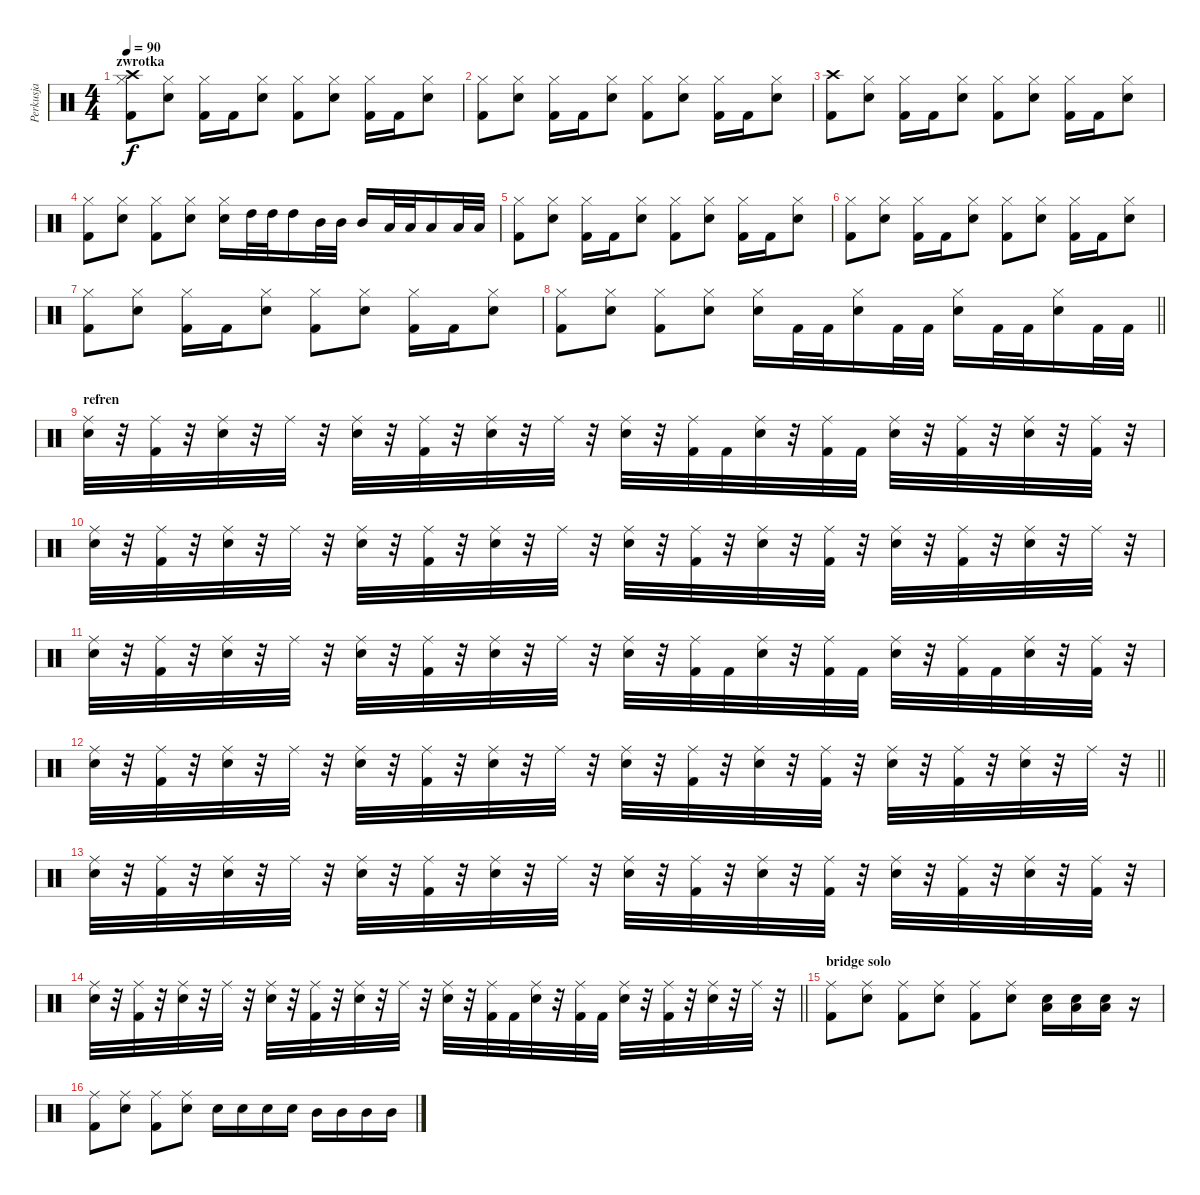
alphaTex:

\track ("Perkusja" "Perkusja") {instrument percussion}
\staff {score}
\articulation defaults
\ts (4 4)
\section ("" "zwrotka")
\tempo 90
\clef neutral
\ks c
("Kick (hit) 2" "Hi-Hat (closed)" "Crash high (hit)").8{dy f} ("Snare (hit) 2" "Hi-Hat (closed)").8 ("Kick (hit) 2" "Hi-Hat (closed)").16 "Kick (hit) 2".16 ("Snare (hit) 2" "Hi-Hat (closed)").8 ("Kick (hit) 2" "Hi-Hat (closed)").8 ("Snare (hit) 2" "Hi-Hat (closed)").8 ("Kick (hit) 2" "Hi-Hat (closed)").16 "Kick (hit) 2".16 ("Snare (hit) 2" "Hi-Hat (closed)").8 |
("Kick (hit) 2" "Hi-Hat (closed)").8 ("Snare (hit) 2" "Hi-Hat (closed)").8 ("Kick (hit) 2" "Hi-Hat (closed)").16 "Kick (hit) 2".16 ("Snare (hit) 2" "Hi-Hat (closed)").8 ("Kick (hit) 2" "Hi-Hat (closed)").8 ("Snare (hit) 2" "Hi-Hat (closed)").8 ("Kick (hit) 2" "Hi-Hat (closed)").16 "Kick (hit) 2".16 ("Snare (hit) 2" "Hi-Hat (closed)").8 |
("Kick (hit) 2" "Crash high (hit)").8 ("Snare (hit) 2" "Hi-Hat (closed)").8 ("Kick (hit) 2" "Hi-Hat (closed)").16 "Kick (hit) 2".16 ("Snare (hit) 2" "Hi-Hat (closed)").8 ("Kick (hit) 2" "Hi-Hat (closed)").8 ("Snare (hit) 2" "Hi-Hat (closed)").8 ("Kick (hit) 2" "Hi-Hat (closed)").16 "Kick (hit) 2".16 ("Snare (hit) 2" "Hi-Hat (closed)").8 |
("Kick (hit) 2" "Hi-Hat (closed)").8 ("Snare (hit) 2" "Hi-Hat (closed)").8 ("Kick (hit) 2" "Hi-Hat (closed)").8 ("Snare (hit) 2" "Hi-Hat (closed)").8 ("Snare (hit) 2" "Hi-Hat (closed)").16 "High Tom (hit)".32 "High Tom (hit)".32 "High Tom (hit)".16 "Mid Tom (hit)".32 "Mid Tom (hit)".32 "Mid Tom (hit)".16 "Low Tom (hit)".32 "Low Tom (hit)".32 "Low Tom (hit)".16 "Low Floor Tom (hit)".32 "Low Floor Tom (hit)".32 |
("Kick (hit) 2" "Hi-Hat (closed)").8 ("Snare (hit) 2" "Hi-Hat (closed)").8 ("Kick (hit) 2" "Hi-Hat (closed)").16 "Kick (hit) 2".16 ("Snare (hit) 2" "Hi-Hat (closed)").8 ("Kick (hit) 2" "Hi-Hat (closed)").8 ("Snare (hit) 2" "Hi-Hat (closed)").8 ("Kick (hit) 2" "Hi-Hat (closed)").16 "Kick (hit) 2".16 ("Snare (hit) 2" "Hi-Hat (closed)").8 |
("Kick (hit) 2" "Hi-Hat (closed)").8 ("Snare (hit) 2" "Hi-Hat (closed)").8 ("Kick (hit) 2" "Hi-Hat (closed)").16 "Kick (hit) 2".16 ("Snare (hit) 2" "Hi-Hat (closed)").8 ("Kick (hit) 2" "Hi-Hat (closed)").8 ("Snare (hit) 2" "Hi-Hat (closed)").8 ("Kick (hit) 2" "Hi-Hat (closed)").16 "Kick (hit) 2".16 ("Snare (hit) 2" "Hi-Hat (closed)").8 |
("Kick (hit) 2" "Hi-Hat (closed)").8 ("Snare (hit) 2" "Hi-Hat (closed)").8 ("Kick (hit) 2" "Hi-Hat (closed)").16 "Kick (hit) 2".16 ("Snare (hit) 2" "Hi-Hat (closed)").8 ("Kick (hit) 2" "Hi-Hat (closed)").8 ("Snare (hit) 2" "Hi-Hat (closed)").8 ("Kick (hit) 2" "Hi-Hat (closed)").16 "Kick (hit) 2".16 ("Snare (hit) 2" "Hi-Hat (closed)").8 |
\barLineRight lightlight
("Kick (hit) 2" "Hi-Hat (closed)").8 ("Snare (hit) 2" "Hi-Hat (closed)").8 ("Kick (hit) 2" "Hi-Hat (closed)").8 ("Snare (hit) 2" "Hi-Hat (closed)").8 ("Snare (hit) 2" "Hi-Hat (closed)").16 "Kick (hit) 2".32 "Kick (hit) 2".32 ("Snare (hit) 2" "Hi-Hat (closed)").16 "Kick (hit) 2".32 "Kick (hit) 2".32 ("Snare (hit) 2" "Hi-Hat (closed)").16 "Kick (hit) 2".32 "Kick (hit) 2".32 ("Snare (hit) 2" "Hi-Hat (closed)").16 "Kick (hit) 2".32 "Kick (hit) 2".32 |
\section ("" "refren")
("Snare (hit) 2" "Ride (middle)").32 r.32 ("Kick (hit) 2" "Ride (middle)").32 r.32 ("Snare (hit) 2" "Ride (middle)").32 r.32 "Ride (middle)".32 r.32 ("Snare (hit) 2" "Ride (middle)").32 r.32 ("Kick (hit) 2" "Ride (middle)").32 r.32 ("Snare (hit) 2" "Ride (middle)").32 r.32 "Ride (middle)".32 r.32 ("Snare (hit) 2" "Ride (middle)").32 r.32 ("Kick (hit) 2" "Ride (middle)").32 "Kick (hit) 2".32 ("Snare (hit) 2" "Ride (middle)").32 r.32 ("Kick (hit) 2" "Ride (middle)").32 "Kick (hit) 2".32 ("Snare (hit) 2" "Ride (middle)").32 r.32 ("Kick (hit) 2" "Ride (middle)").32 r.32 ("Snare (hit) 2" "Ride (middle)").32 r.32 ("Kick (hit) 2" "Ride (middle)").32 r.32 |
("Snare (hit) 2" "Ride (middle)").32 r.32 ("Kick (hit) 2" "Ride (middle)").32 r.32 ("Snare (hit) 2" "Ride (middle)").32 r.32 "Ride (middle)".32 r.32 ("Snare (hit) 2" "Ride (middle)").32 r.32 ("Kick (hit) 2" "Ride (middle)").32 r.32 ("Snare (hit) 2" "Ride (middle)").32 r.32 "Ride (middle)".32 r.32 ("Snare (hit) 2" "Ride (middle)").32 r.32 ("Kick (hit) 2" "Ride (middle)").32 r.32 ("Snare (hit) 2" "Ride (middle)").32 r.32 ("Kick (hit) 2" "Ride (middle)").32 r.32 ("Snare (hit) 2" "Ride (middle)").32 r.32 ("Kick (hit) 2" "Ride (middle)").32 r.32 ("Snare (hit) 2" "Ride (middle)").32 r.32 "Ride (middle)".32 r.32 |
("Snare (hit) 2" "Ride (middle)").32 r.32 ("Kick (hit) 2" "Ride (middle)").32 r.32 ("Snare (hit) 2" "Ride (middle)").32 r.32 "Ride (middle)".32 r.32 ("Snare (hit) 2" "Ride (middle)").32 r.32 ("Kick (hit) 2" "Ride (middle)").32 r.32 ("Snare (hit) 2" "Ride (middle)").32 r.32 "Ride (middle)".32 r.32 ("Snare (hit) 2" "Ride (middle)").32 r.32 ("Kick (hit) 2" "Ride (middle)").32 "Kick (hit) 2".32 ("Snare (hit) 2" "Ride (middle)").32 r.32 ("Kick (hit) 2" "Ride (middle)").32 "Kick (hit) 2".32 ("Snare (hit) 2" "Ride (middle)").32 r.32 ("Kick (hit) 2" "Ride (middle)").32 "Kick (hit) 2".32 ("Snare (hit) 2" "Ride (middle)").32 r.32 ("Kick (hit) 2" "Ride (middle)").32 r.32 |
\barLineRight lightlight
("Snare (hit) 2" "Ride (middle)").32 r.32 ("Kick (hit) 2" "Ride (middle)").32 r.32 ("Snare (hit) 2" "Ride (middle)").32 r.32 "Ride (middle)".32 r.32 ("Snare (hit) 2" "Ride (middle)").32 r.32 ("Kick (hit) 2" "Ride (middle)").32 r.32 ("Snare (hit) 2" "Ride (middle)").32 r.32 "Ride (middle)".32 r.32 ("Snare (hit) 2" "Ride (middle)").32 r.32 ("Kick (hit) 2" "Ride (middle)").32 r.32 ("Snare (hit) 2" "Ride (middle)").32 r.32 ("Kick (hit) 2" "Ride (middle)").32 r.32 ("Snare (hit) 2" "Ride (middle)").32 r.32 ("Kick (hit) 2" "Ride (middle)").32 r.32 ("Snare (hit) 2" "Ride (middle)").32 r.32 "Ride (middle)".32 r.32 |
("Snare (hit) 2" "Ride (middle)").32 r.32 ("Kick (hit) 2" "Ride (middle)").32 r.32 ("Snare (hit) 2" "Ride (middle)").32 r.32 "Ride (middle)".32 r.32 ("Snare (hit) 2" "Ride (middle)").32 r.32 ("Kick (hit) 2" "Ride (middle)").32 r.32 ("Snare (hit) 2" "Ride (middle)").32 r.32 "Ride (middle)".32 r.32 ("Snare (hit) 2" "Ride (middle)").32 r.32 ("Kick (hit) 2" "Ride (middle)").32 r.32 ("Snare (hit) 2" "Ride (middle)").32 r.32 ("Kick (hit) 2" "Ride (middle)").32 r.32 ("Snare (hit) 2" "Ride (middle)").32 r.32 ("Kick (hit) 2" "Ride (middle)").32 r.32 ("Snare (hit) 2" "Ride (middle)").32 r.32 ("Kick (hit) 2" "Ride (middle)").32 r.32 |
\barLineRight lightlight
("Snare (hit) 2" "Ride (middle)").32 r.32 ("Kick (hit) 2" "Ride (middle)").32 r.32 ("Snare (hit) 2" "Ride (middle)").32 r.32 "Ride (middle)".32 r.32 ("Snare (hit) 2" "Ride (middle)").32 r.32 ("Kick (hit) 2" "Ride (middle)").32 r.32 ("Snare (hit) 2" "Ride (middle)").32 r.32 "Ride (middle)".32 r.32 ("Snare (hit) 2" "Ride (middle)").32 r.32 ("Kick (hit) 2" "Ride (middle)").32 "Kick (hit) 2".32 ("Snare (hit) 2" "Ride (middle)").32 r.32 ("Kick (hit) 2" "Ride (middle)").32 "Kick (hit) 2".32 ("Snare (hit) 2" "Ride (middle)").32 r.32 ("Kick (hit) 2" "Ride (middle)").32 r.32 ("Snare (hit) 2" "Ride (middle)").32 r.32 "Ride (middle)".32 r.32 |
\section ("" "bridge solo")
("Ride (middle)" "Kick (hit) 2").8 ("Ride (middle)" "Snare (hit) 2").8 ("Ride (middle)" "Kick (hit) 2").8 ("Ride (middle)" "Snare (hit) 2").8 ("Ride (middle)" "Kick (hit) 2").8 ("Ride (middle)" "Snare (hit) 2").8 ("Low Floor Tom (hit)" "Snare (hit) 2").16 ("Low Floor Tom (hit)" "Snare (hit) 2").16 ("Low Floor Tom (hit)" "Snare (hit) 2").16 r.16 |
("Ride (middle)" "Kick (hit) 2").8 ("Ride (middle)" "Snare (hit) 2").8 ("Ride (middle)" "Kick (hit) 2").8 ("Ride (middle)" "Snare (hit) 2").8 "Snare (hit) 2".16 "Snare (hit) 2".16 "Snare (hit) 2".16 "Snare (hit) 2".16 "Mid Tom (hit)".16 "Mid Tom (hit)".16 "Mid Tom (hit)".16 "Mid Tom (hit)".16
